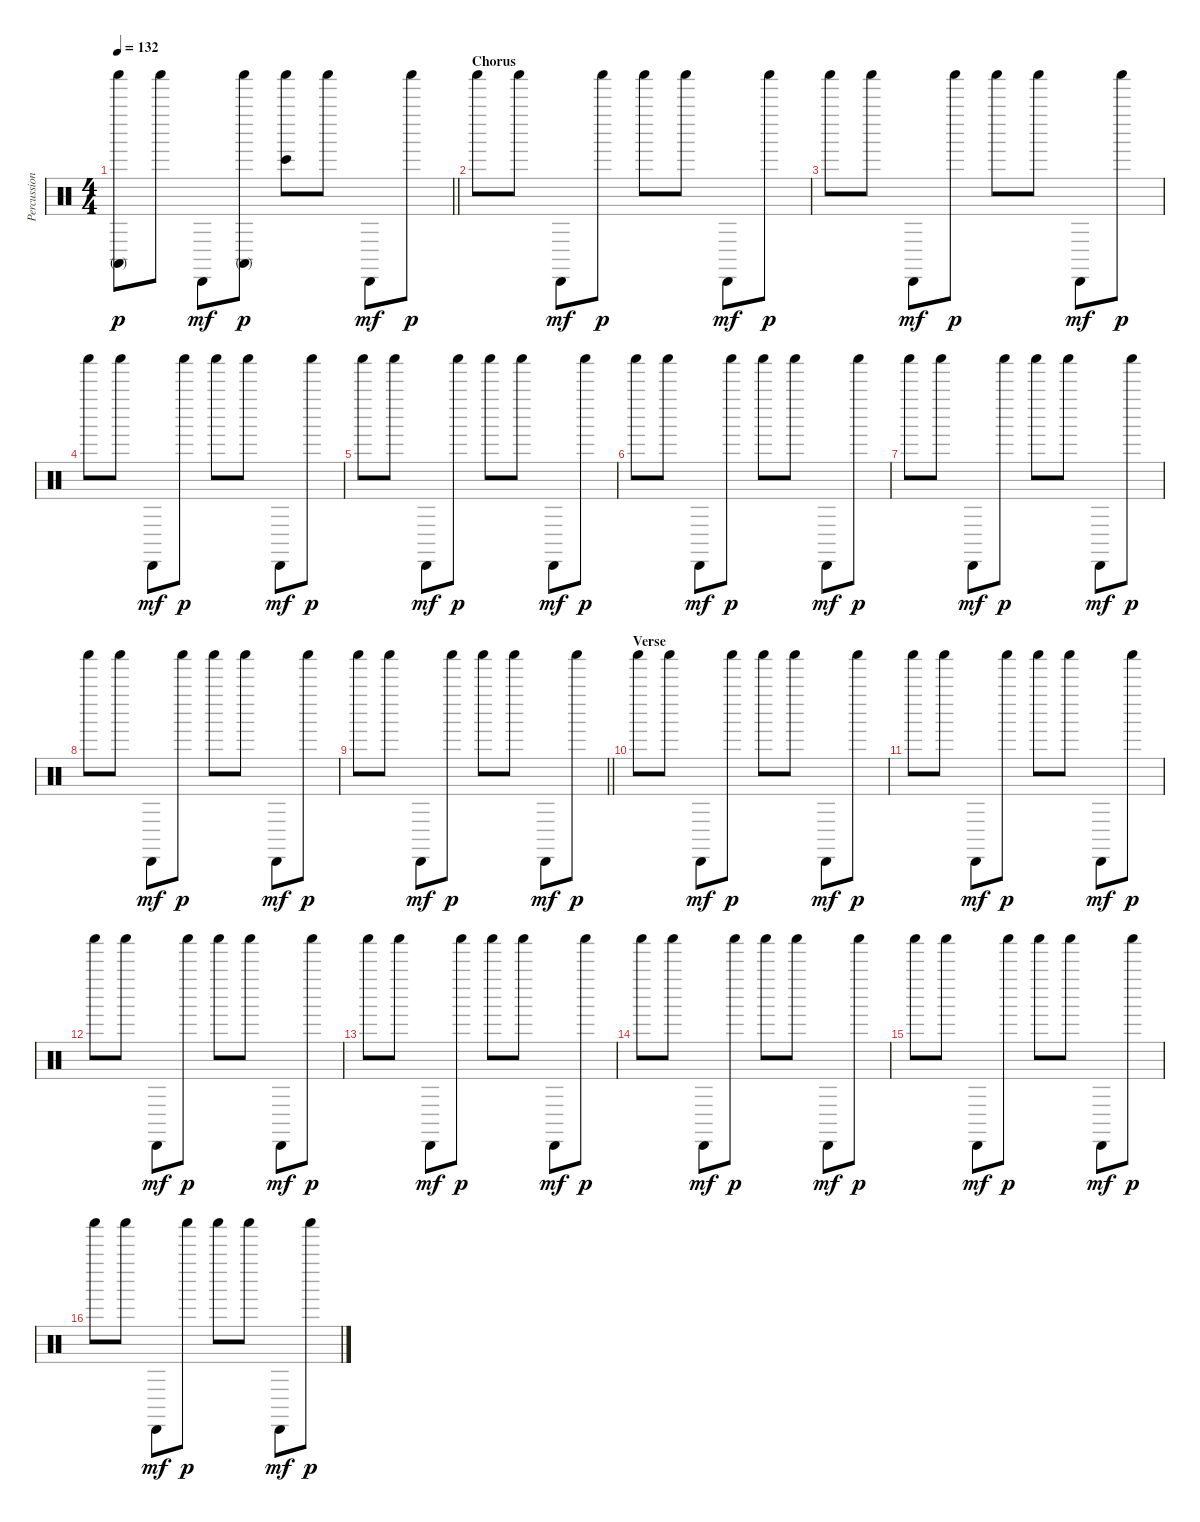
\track ("Percussions" "Percussion") {instrument percussion}
\staff {score}
\articulation defaults
\ts (4 4)
\tempo 132
\clef neutral
\barLineRight lightlight
\ks c
("Shaker (hit)" "Conga high (mute)").8{dy p} "Shaker (hit)".8 "Cabasa (hit)".8{dy mf} ("Shaker (hit)" "Conga high (mute)").8{dy p} ("Shaker (hit)" "Bongo High (hit)").8 "Shaker (hit)".8 "Cabasa (hit)".8{dy mf} "Shaker (hit)".8{dy p} |
\section ("" "Chorus")
"Shaker (hit)".8 "Shaker (hit)".8 "Cabasa (hit)".8{dy mf} "Shaker (hit)".8{dy p} "Shaker (hit)".8 "Shaker (hit)".8 "Cabasa (hit)".8{dy mf} "Shaker (hit)".8{dy p} |
"Shaker (hit)".8 "Shaker (hit)".8 "Cabasa (hit)".8{dy mf} "Shaker (hit)".8{dy p} "Shaker (hit)".8 "Shaker (hit)".8 "Cabasa (hit)".8{dy mf} "Shaker (hit)".8{dy p} |
"Shaker (hit)".8 "Shaker (hit)".8 "Cabasa (hit)".8{dy mf} "Shaker (hit)".8{dy p} "Shaker (hit)".8 "Shaker (hit)".8 "Cabasa (hit)".8{dy mf} "Shaker (hit)".8{dy p} |
"Shaker (hit)".8 "Shaker (hit)".8 "Cabasa (hit)".8{dy mf} "Shaker (hit)".8{dy p} "Shaker (hit)".8 "Shaker (hit)".8 "Cabasa (hit)".8{dy mf} "Shaker (hit)".8{dy p} |
"Shaker (hit)".8 "Shaker (hit)".8 "Cabasa (hit)".8{dy mf} "Shaker (hit)".8{dy p} "Shaker (hit)".8 "Shaker (hit)".8 "Cabasa (hit)".8{dy mf} "Shaker (hit)".8{dy p} |
"Shaker (hit)".8 "Shaker (hit)".8 "Cabasa (hit)".8{dy mf} "Shaker (hit)".8{dy p} "Shaker (hit)".8 "Shaker (hit)".8 "Cabasa (hit)".8{dy mf} "Shaker (hit)".8{dy p} |
"Shaker (hit)".8 "Shaker (hit)".8 "Cabasa (hit)".8{dy mf} "Shaker (hit)".8{dy p} "Shaker (hit)".8 "Shaker (hit)".8 "Cabasa (hit)".8{dy mf} "Shaker (hit)".8{dy p} |
\barLineRight lightlight "Shaker (hit)".8 "Shaker (hit)".8 "Cabasa (hit)".8{dy mf} "Shaker (hit)".8{dy p} "Shaker (hit)".8 "Shaker (hit)".8 "Cabasa (hit)".8{dy mf} "Shaker (hit)".8{dy p}
|
\section ("" "Verse")
"Shaker (hit)".8 "Shaker (hit)".8 "Cabasa (hit)".8{dy mf} "Shaker (hit)".8{dy p} "Shaker (hit)".8 "Shaker (hit)".8 "Cabasa (hit)".8{dy mf} "Shaker (hit)".8{dy p} |
"Shaker (hit)".8 "Shaker (hit)".8 "Cabasa (hit)".8{dy mf} "Shaker (hit)".8{dy p} "Shaker (hit)".8 "Shaker (hit)".8 "Cabasa (hit)".8{dy mf} "Shaker (hit)".8{dy p} |
"Shaker (hit)".8 "Shaker (hit)".8 "Cabasa (hit)".8{dy mf} "Shaker (hit)".8{dy p} "Shaker (hit)".8 "Shaker (hit)".8 "Cabasa (hit)".8{dy mf} "Shaker (hit)".8{dy p} |
"Shaker (hit)".8 "Shaker (hit)".8 "Cabasa (hit)".8{dy mf} "Shaker (hit)".8{dy p} "Shaker (hit)".8 "Shaker (hit)".8 "Cabasa (hit)".8{dy mf} "Shaker (hit)".8{dy p} |
"Shaker (hit)".8 "Shaker (hit)".8 "Cabasa (hit)".8{dy mf} "Shaker (hit)".8{dy p} "Shaker (hit)".8 "Shaker (hit)".8 "Cabasa (hit)".8{dy mf} "Shaker (hit)".8{dy p} |
"Shaker (hit)".8 "Shaker (hit)".8 "Cabasa (hit)".8{dy mf} "Shaker (hit)".8{dy p} "Shaker (hit)".8 "Shaker (hit)".8 "Cabasa (hit)".8{dy mf} "Shaker (hit)".8{dy p} |
"Shaker (hit)".8 "Shaker (hit)".8 "Cabasa (hit)".8{dy mf} "Shaker (hit)".8{dy p} "Shaker (hit)".8 "Shaker (hit)".8 "Cabasa (hit)".8{dy mf} "Shaker (hit)".8{dy p}
